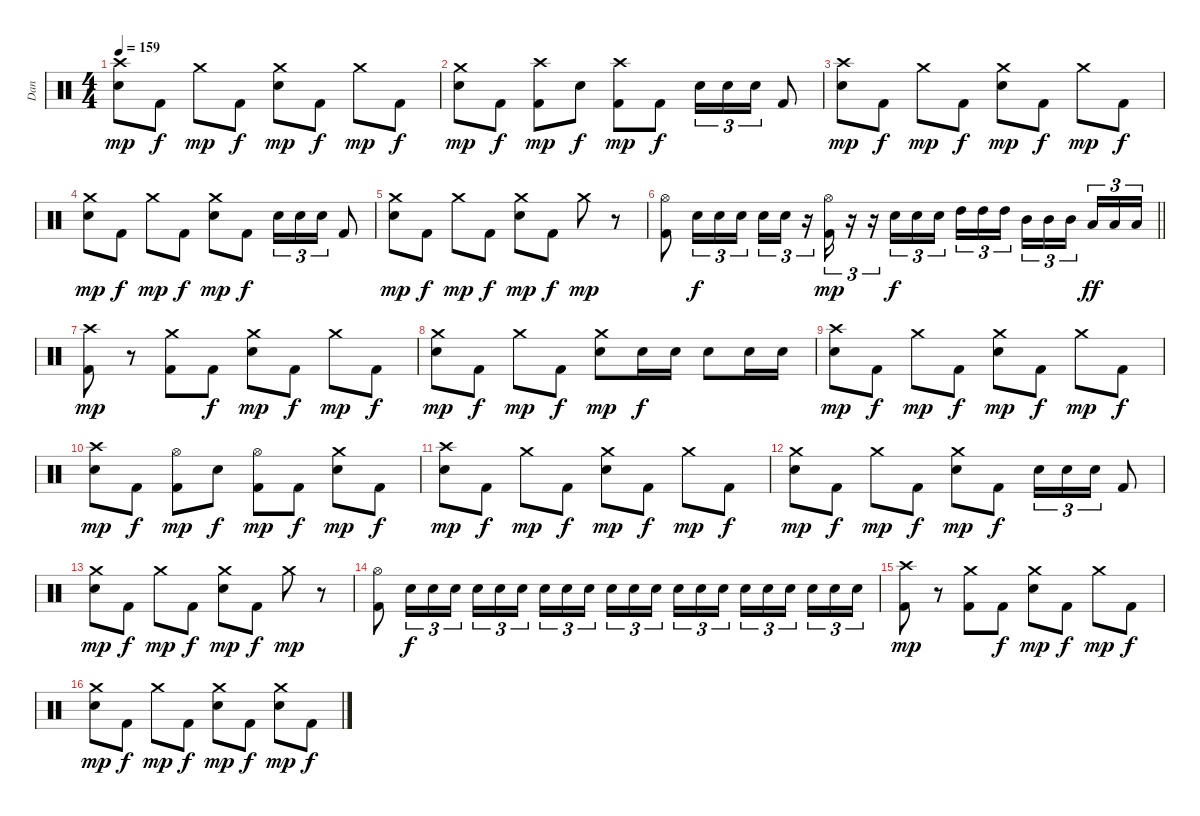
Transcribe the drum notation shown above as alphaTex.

\track ("Dan" "Dan") {instrument percussion}
\staff {score}
\articulation defaults
\ts (4 4)
\tempo 159
\clef neutral
\ks c
("Crash high (hit)" "Snare (hit) 2").8{dy mp} "Kick (hit) 2".8{dy f} "Crash medium (hit)".8{dy mp} "Kick (hit) 2".8{dy f} ("Crash medium (hit)" "Snare (hit) 2").8{dy mp} "Kick (hit) 2".8{dy f} "Crash medium (hit)".8{dy mp} "Kick (hit) 2".8{dy f} |
("Crash medium (hit)" "Snare (hit) 2").8{dy mp} "Kick (hit) 2".8{dy f} ("Crash high (hit)" "Kick (hit) 2").8{dy mp} "Snare (hit) 2".8{dy f} ("Crash high (hit)" "Kick (hit) 2").8{dy mp} "Kick (hit) 2".8{dy f} "Snare (hit) 2".16{tu (3 2)} "Snare (hit) 2".16{tu (3 2)} "Snare (hit) 2".16{tu (3 2)} "Kick (hit) 2".8 |
("Crash high (hit)" "Snare (hit) 2").8{dy mp} "Kick (hit) 2".8{dy f} "Crash medium (hit)".8{dy mp} "Kick (hit) 2".8{dy f} ("Crash medium (hit)" "Snare (hit) 2").8{dy mp} "Kick (hit) 2".8{dy f} "Crash medium (hit)".8{dy mp} "Kick (hit) 2".8{dy f} |
("Crash medium (hit)" "Snare (hit) 2").8{dy mp} "Kick (hit) 2".8{dy f} "Crash medium (hit)".8{dy mp} "Kick (hit) 2".8{dy f} ("Crash medium (hit)" "Snare (hit) 2").8{dy mp} "Kick (hit) 2".8{dy f} "Snare (hit) 2".16{tu (3 2)} "Snare (hit) 2".16{tu (3 2)} "Snare (hit) 2".16{tu (3 2)} "Kick (hit) 2".8 |
("Crash medium (hit)" "Snare (hit) 2").8{dy mp} "Kick (hit) 2".8{dy f} "Crash medium (hit)".8{dy mp} "Kick (hit) 2".8{dy f} ("Crash medium (hit)" "Snare (hit) 2").8{dy mp} "Kick (hit) 2".8{dy f} "Crash medium (hit)".8{dy mp} r.8 |
\barLineRight lightlight
("Hi-Hat (open)" "Kick (hit) 2").8 "Snare (hit) 2".16{tu (3 2) dy f} "Snare (hit) 2".16{tu (3 2)} "Snare (hit) 2".16{tu (3 2)} "Snare (hit) 2".16{tu (3 2)} "Snare (hit) 2".16{tu (3 2)} r.16{tu (3 2)} ("Hi-Hat (open)" "Kick (hit) 2").16{tu (3 2) dy mp} r.16{tu (3 2)} r.16{tu (3 2)} "Snare (hit) 2".16{tu (3 2) dy f} "Snare (hit) 2".16{tu (3 2)} "Snare (hit) 2".16{tu (3 2) beam splitsecondary} "High Tom (hit)".16{tu (3 2)} "High Tom (hit)".16{tu (3 2)} "High Tom (hit)".16{tu (3 2)} "Mid Tom (hit)".16{tu (3 2)} "Mid Tom (hit)".16{tu (3 2)} "Mid Tom (hit)".16{tu (3 2) beam splitsecondary} "Low Tom (hit)".16{tu (3 2) dy ff} "Low Tom (hit)".16{tu (3 2)} "Low Tom (hit)".16{tu (3 2)} |
("Crash high (hit)" "Kick (hit) 2").8{dy mp} r.8 ("Crash medium (hit)" "Kick (hit) 2").8 "Kick (hit) 2".8{dy f} ("Crash medium (hit)" "Snare (hit) 2").8{dy mp} "Kick (hit) 2".8{dy f} "Crash medium (hit)".8{dy mp} "Kick (hit) 2".8{dy f} |
("Crash medium (hit)" "Snare (hit) 2").8{dy mp} "Kick (hit) 2".8{dy f} "Crash medium (hit)".8{dy mp} "Kick (hit) 2".8{dy f} ("Crash medium (hit)" "Snare (hit) 2").8{dy mp} "Snare (hit) 2".16{dy f} "Snare (hit) 2".16 "Snare (hit) 2".8 "Snare (hit) 2".16 "Snare (hit) 2".16 |
("Crash high (hit)" "Snare (hit) 2").8{dy mp} "Kick (hit) 2".8{dy f} "Crash medium (hit)".8{dy mp} "Kick (hit) 2".8{dy f} ("Crash medium (hit)" "Snare (hit) 2").8{dy mp} "Kick (hit) 2".8{dy f} "Crash medium (hit)".8{dy mp} "Kick (hit) 2".8{dy f} |
("Crash high (hit)" "Snare (hit) 2").8{dy mp} "Kick (hit) 2".8{dy f} ("Hi-Hat (open)" "Kick (hit) 2").8{dy mp} "Snare (hit) 2".8{dy f} ("Hi-Hat (open)" "Kick (hit) 2").8{dy mp} "Kick (hit) 2".8{dy f} ("Crash medium (hit)" "Snare (hit) 2").8{dy mp} "Kick (hit) 2".8{dy f} |
("Crash high (hit)" "Snare (hit) 2").8{dy mp} "Kick (hit) 2".8{dy f} "Crash medium (hit)".8{dy mp} "Kick (hit) 2".8{dy f} ("Crash medium (hit)" "Snare (hit) 2").8{dy mp} "Kick (hit) 2".8{dy f} "Crash medium (hit)".8{dy mp} "Kick (hit) 2".8{dy f} |
("Crash medium (hit)" "Snare (hit) 2").8{dy mp} "Kick (hit) 2".8{dy f} "Crash medium (hit)".8{dy mp} "Kick (hit) 2".8{dy f} ("Crash medium (hit)" "Snare (hit) 2").8{dy mp} "Kick (hit) 2".8{dy f} "Snare (hit) 2".16{tu (3 2)} "Snare (hit) 2".16{tu (3 2)} "Snare (hit) 2".16{tu (3 2)} "Kick (hit) 2".8 |
("Crash medium (hit)" "Snare (hit) 2").8{dy mp} "Kick (hit) 2".8{dy f} "Crash medium (hit)".8{dy mp} "Kick (hit) 2".8{dy f} ("Crash medium (hit)" "Snare (hit) 2").8{dy mp} "Kick (hit) 2".8{dy f} "Crash medium (hit)".8{dy mp} r.8 |
("Hi-Hat (open)" "Kick (hit) 2").8 "Snare (hit) 2".16{tu (3 2) dy f} "Snare (hit) 2".16{tu (3 2)} "Snare (hit) 2".16{tu (3 2)} "Snare (hit) 2".16{tu (3 2)} "Snare (hit) 2".16{tu (3 2)} "Snare (hit) 2".16{tu (3 2) beam splitsecondary} "Snare (hit) 2".16{tu (3 2)} "Snare (hit) 2".16{tu (3 2)} "Snare (hit) 2".16{tu (3 2)} "Snare (hit) 2".16{tu (3 2)} "Snare (hit) 2".16{tu (3 2)} "Snare (hit) 2".16{tu (3 2) beam splitsecondary} "Snare (hit) 2".16{tu (3 2)} "Snare (hit) 2".16{tu (3 2)} "Snare (hit) 2".16{tu (3 2)} "Snare (hit) 2".16{tu (3 2)} "Snare (hit) 2".16{tu (3 2)} "Snare (hit) 2".16{tu (3 2) beam splitsecondary} "Snare (hit) 2".16{tu (3 2)} "Snare (hit) 2".16{tu (3 2)} "Snare (hit) 2".16{tu (3 2)} |
("Crash high (hit)" "Kick (hit) 2").8{dy mp} r.8 ("Crash medium (hit)" "Kick (hit) 2").8 "Kick (hit) 2".8{dy f} ("Crash medium (hit)" "Snare (hit) 2").8{dy mp} "Kick (hit) 2".8{dy f} "Crash medium (hit)".8{dy mp} "Kick (hit) 2".8{dy f} |
("Crash medium (hit)" "Snare (hit) 2").8{dy mp} "Kick (hit) 2".8{dy f} "Crash medium (hit)".8{dy mp} "Kick (hit) 2".8{dy f} ("Crash medium (hit)" "Snare (hit) 2").8{dy mp} "Kick (hit) 2".8{dy f} ("Crash medium (hit)" "Snare (hit) 2").8{dy mp} "Kick (hit) 2".8{dy f}
